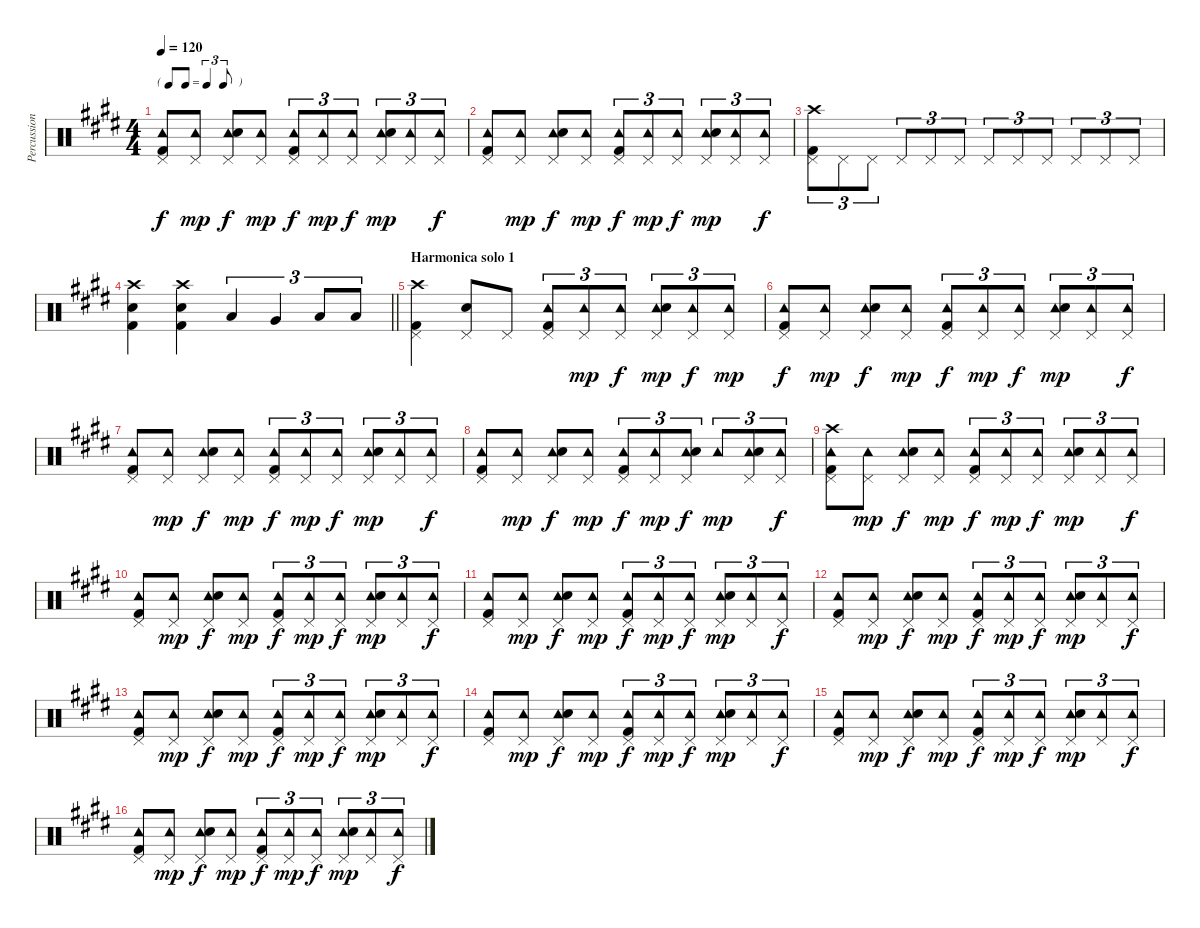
\track ("Percussion" "Percussion") {instrument percussion}
\staff {score}
\articulation defaults
\ts (4 4)
\tf triplet8th
\tempo 120
\clef neutral
\ks e
("Tambourine (hit)" "Pedal Hi-Hat (hit)" "Kick (hit) 2").8{dy f} ("Tambourine (hit)" "Pedal Hi-Hat (hit)").8{dy mp} ("Tambourine (hit)" "Pedal Hi-Hat (hit)" "Electric Snare (hit)").8{dy f} ("Tambourine (hit)" "Pedal Hi-Hat (hit)").8{dy mp} ("Tambourine (hit)" "Pedal Hi-Hat (hit)" "Kick (hit) 2").8{tu (3 2) dy f} ("Tambourine (hit)" "Pedal Hi-Hat (hit)").8{tu (3 2) dy mp} ("Tambourine (hit)" "Pedal Hi-Hat (hit)").8{tu (3 2) dy f} ("Tambourine (hit)" "Pedal Hi-Hat (hit)" "Electric Snare (hit)").8{tu (3 2) dy mp} ("Tambourine (hit)" "Pedal Hi-Hat (hit)").8{tu (3 2)} ("Tambourine (hit)" "Pedal Hi-Hat (hit)").8{tu (3 2) dy f} |
("Tambourine (hit)" "Pedal Hi-Hat (hit)" "Kick (hit) 2").8 ("Tambourine (hit)" "Pedal Hi-Hat (hit)").8{dy mp} ("Tambourine (hit)" "Pedal Hi-Hat (hit)" "Electric Snare (hit)").8{dy f} ("Tambourine (hit)" "Pedal Hi-Hat (hit)").8{dy mp} ("Tambourine (hit)" "Pedal Hi-Hat (hit)" "Kick (hit) 2").8{tu (3 2) dy f} ("Tambourine (hit)" "Pedal Hi-Hat (hit)").8{tu (3 2) dy mp} ("Tambourine (hit)" "Pedal Hi-Hat (hit)").8{tu (3 2) dy f} ("Tambourine (hit)" "Pedal Hi-Hat (hit)" "Electric Snare (hit)").8{tu (3 2) dy mp} ("Tambourine (hit)" "Pedal Hi-Hat (hit)").8{tu (3 2)} ("Tambourine (hit)" "Pedal Hi-Hat (hit)").8{tu (3 2) dy f} |
("Crash high (hit)" "Pedal Hi-Hat (hit)" "Kick (hit) 2").8{tu (3 2) volume 14} "Pedal Hi-Hat (hit)".8{tu (3 2)} "Pedal Hi-Hat (hit)".8{tu (3 2)} "Pedal Hi-Hat (hit)".8{tu (3 2)} "Pedal Hi-Hat (hit)".8{tu (3 2)} "Pedal Hi-Hat (hit)".8{tu (3 2)} "Pedal Hi-Hat (hit)".8{tu (3 2)} "Pedal Hi-Hat (hit)".8{tu (3 2)} "Pedal Hi-Hat (hit)".8{tu (3 2)} "Pedal Hi-Hat (hit)".8{tu (3 2)} "Pedal Hi-Hat (hit)".8{tu (3 2)} "Pedal Hi-Hat (hit)".8{tu (3 2)} |
\barLineRight lightlight
("Crash high (hit)" "Electric Snare (hit)" "Kick (hit) 2").4 ("Crash high (hit)" "Electric Snare (hit)" "Kick (hit) 2").4 "Low Tom (hit)".4{tu (3 2)} "Very Low Tom (hit)".4{tu (3 2)} "Low Floor Tom (hit)".8{tu (3 2)} "Low Floor Tom (hit)".8{tu (3 2)} |
\section ("" "Harmonica solo 1")
("Crash high (hit)" "Pedal Hi-Hat (hit)" "Kick (hit) 2").4{volume 10} ("Pedal Hi-Hat (hit)" "Electric Snare (hit)").8 "Pedal Hi-Hat (hit)".8 ("Tambourine (hit)" "Pedal Hi-Hat (hit)" "Kick (hit) 2").8{tu (3 2)} ("Tambourine (hit)" "Pedal Hi-Hat (hit)").8{tu (3 2) dy mp} ("Tambourine (hit)" "Pedal Hi-Hat (hit)").8{tu (3 2) dy f} ("Tambourine (hit)" "Pedal Hi-Hat (hit)" "Electric Snare (hit)").8{tu (3 2) dy mp} ("Tambourine (hit)" "Pedal Hi-Hat (hit)").8{tu (3 2) dy f} ("Tambourine (hit)" "Pedal Hi-Hat (hit)").8{tu (3 2) dy mp} |
("Tambourine (hit)" "Pedal Hi-Hat (hit)" "Kick (hit) 2").8{dy f} ("Tambourine (hit)" "Pedal Hi-Hat (hit)").8{dy mp} ("Tambourine (hit)" "Pedal Hi-Hat (hit)" "Electric Snare (hit)").8{dy f} ("Tambourine (hit)" "Pedal Hi-Hat (hit)").8{dy mp} ("Tambourine (hit)" "Pedal Hi-Hat (hit)" "Kick (hit) 2").8{tu (3 2) dy f} ("Tambourine (hit)" "Pedal Hi-Hat (hit)").8{tu (3 2) dy mp} ("Tambourine (hit)" "Pedal Hi-Hat (hit)").8{tu (3 2) dy f} ("Tambourine (hit)" "Pedal Hi-Hat (hit)" "Electric Snare (hit)").8{tu (3 2) dy mp} ("Tambourine (hit)" "Pedal Hi-Hat (hit)").8{tu (3 2)} ("Tambourine (hit)" "Pedal Hi-Hat (hit)").8{tu (3 2) dy f} |
("Tambourine (hit)" "Pedal Hi-Hat (hit)" "Kick (hit) 2").8 ("Tambourine (hit)" "Pedal Hi-Hat (hit)").8{dy mp} ("Tambourine (hit)" "Pedal Hi-Hat (hit)" "Electric Snare (hit)").8{dy f} ("Tambourine (hit)" "Pedal Hi-Hat (hit)").8{dy mp} ("Tambourine (hit)" "Pedal Hi-Hat (hit)" "Kick (hit) 2").8{tu (3 2) dy f} ("Tambourine (hit)" "Pedal Hi-Hat (hit)").8{tu (3 2) dy mp} ("Tambourine (hit)" "Pedal Hi-Hat (hit)").8{tu (3 2) dy f} ("Tambourine (hit)" "Pedal Hi-Hat (hit)" "Electric Snare (hit)").8{tu (3 2) dy mp} ("Tambourine (hit)" "Pedal Hi-Hat (hit)").8{tu (3 2)} ("Tambourine (hit)" "Pedal Hi-Hat (hit)").8{tu (3 2) dy f} |
("Tambourine (hit)" "Pedal Hi-Hat (hit)" "Kick (hit) 2").8 ("Tambourine (hit)" "Pedal Hi-Hat (hit)").8{dy mp} ("Tambourine (hit)" "Pedal Hi-Hat (hit)" "Electric Snare (hit)").8{dy f} ("Tambourine (hit)" "Pedal Hi-Hat (hit)").8{dy mp} ("Tambourine (hit)" "Pedal Hi-Hat (hit)" "Kick (hit) 2").8{tu (3 2) dy f} ("Tambourine (hit)" "Pedal Hi-Hat (hit)").8{tu (3 2) dy mp} ("Tambourine (hit)" "Pedal Hi-Hat (hit)" "Electric Snare (hit)").8{tu (3 2) dy f} "Tambourine (hit)".8{tu (3 2) dy mp} ("Tambourine (hit)" "Pedal Hi-Hat (hit)" "Electric Snare (hit)").8{tu (3 2)} ("Tambourine (hit)" "Pedal Hi-Hat (hit)").8{tu (3 2) dy f} |
("Tambourine (hit)" "Crash high (hit)" "Pedal Hi-Hat (hit)" "Kick (hit) 2").8 ("Tambourine (hit)" "Pedal Hi-Hat (hit)").8{dy mp} ("Tambourine (hit)" "Pedal Hi-Hat (hit)" "Electric Snare (hit)").8{dy f} ("Tambourine (hit)" "Pedal Hi-Hat (hit)").8{dy mp} ("Tambourine (hit)" "Pedal Hi-Hat (hit)" "Kick (hit) 2").8{tu (3 2) dy f} ("Tambourine (hit)" "Pedal Hi-Hat (hit)").8{tu (3 2) dy mp} ("Tambourine (hit)" "Pedal Hi-Hat (hit)").8{tu (3 2) dy f} ("Tambourine (hit)" "Pedal Hi-Hat (hit)" "Electric Snare (hit)").8{tu (3 2) dy mp} ("Tambourine (hit)" "Pedal Hi-Hat (hit)").8{tu (3 2)} ("Tambourine (hit)" "Pedal Hi-Hat (hit)").8{tu (3 2) dy f} |
("Tambourine (hit)" "Pedal Hi-Hat (hit)" "Kick (hit) 2").8 ("Tambourine (hit)" "Pedal Hi-Hat (hit)").8{dy mp} ("Tambourine (hit)" "Pedal Hi-Hat (hit)" "Electric Snare (hit)").8{dy f} ("Tambourine (hit)" "Pedal Hi-Hat (hit)").8{dy mp} ("Tambourine (hit)" "Pedal Hi-Hat (hit)" "Kick (hit) 2").8{tu (3 2) dy f} ("Tambourine (hit)" "Pedal Hi-Hat (hit)").8{tu (3 2) dy mp} ("Tambourine (hit)" "Pedal Hi-Hat (hit)").8{tu (3 2) dy f} ("Tambourine (hit)" "Pedal Hi-Hat (hit)" "Electric Snare (hit)").8{tu (3 2) dy mp} ("Tambourine (hit)" "Pedal Hi-Hat (hit)").8{tu (3 2)} ("Tambourine (hit)" "Pedal Hi-Hat (hit)").8{tu (3 2) dy f} |
("Tambourine (hit)" "Pedal Hi-Hat (hit)" "Kick (hit) 2").8 ("Tambourine (hit)" "Pedal Hi-Hat (hit)").8{dy mp} ("Tambourine (hit)" "Pedal Hi-Hat (hit)" "Electric Snare (hit)").8{dy f} ("Tambourine (hit)" "Pedal Hi-Hat (hit)").8{dy mp} ("Tambourine (hit)" "Pedal Hi-Hat (hit)" "Kick (hit) 2").8{tu (3 2) dy f} ("Tambourine (hit)" "Pedal Hi-Hat (hit)").8{tu (3 2) dy mp} ("Tambourine (hit)" "Pedal Hi-Hat (hit)").8{tu (3 2) dy f} ("Tambourine (hit)" "Pedal Hi-Hat (hit)" "Electric Snare (hit)").8{tu (3 2) dy mp} ("Tambourine (hit)" "Pedal Hi-Hat (hit)").8{tu (3 2)} ("Tambourine (hit)" "Pedal Hi-Hat (hit)").8{tu (3 2) dy f} |
("Tambourine (hit)" "Pedal Hi-Hat (hit)" "Kick (hit) 2").8 ("Tambourine (hit)" "Pedal Hi-Hat (hit)").8{dy mp} ("Tambourine (hit)" "Pedal Hi-Hat (hit)" "Electric Snare (hit)").8{dy f} ("Tambourine (hit)" "Pedal Hi-Hat (hit)").8{dy mp} ("Tambourine (hit)" "Pedal Hi-Hat (hit)" "Kick (hit) 2").8{tu (3 2) dy f} ("Tambourine (hit)" "Pedal Hi-Hat (hit)").8{tu (3 2) dy mp} ("Tambourine (hit)" "Pedal Hi-Hat (hit)").8{tu (3 2) dy f} ("Tambourine (hit)" "Pedal Hi-Hat (hit)" "Electric Snare (hit)").8{tu (3 2) dy mp} ("Tambourine (hit)" "Pedal Hi-Hat (hit)").8{tu (3 2)} ("Tambourine (hit)" "Pedal Hi-Hat (hit)").8{tu (3 2) dy f} |
("Tambourine (hit)" "Pedal Hi-Hat (hit)" "Kick (hit) 2").8 ("Tambourine (hit)" "Pedal Hi-Hat (hit)").8{dy mp} ("Tambourine (hit)" "Pedal Hi-Hat (hit)" "Electric Snare (hit)").8{dy f} ("Tambourine (hit)" "Pedal Hi-Hat (hit)").8{dy mp} ("Tambourine (hit)" "Pedal Hi-Hat (hit)" "Kick (hit) 2").8{tu (3 2) dy f} ("Tambourine (hit)" "Pedal Hi-Hat (hit)").8{tu (3 2) dy mp} ("Tambourine (hit)" "Pedal Hi-Hat (hit)").8{tu (3 2) dy f} ("Tambourine (hit)" "Pedal Hi-Hat (hit)" "Electric Snare (hit)").8{tu (3 2) dy mp} ("Tambourine (hit)" "Pedal Hi-Hat (hit)").8{tu (3 2)} ("Tambourine (hit)" "Pedal Hi-Hat (hit)").8{tu (3 2) dy f} |
("Tambourine (hit)" "Pedal Hi-Hat (hit)" "Kick (hit) 2").8 ("Tambourine (hit)" "Pedal Hi-Hat (hit)").8{dy mp} ("Tambourine (hit)" "Pedal Hi-Hat (hit)" "Electric Snare (hit)").8{dy f} ("Tambourine (hit)" "Pedal Hi-Hat (hit)").8{dy mp} ("Tambourine (hit)" "Pedal Hi-Hat (hit)" "Kick (hit) 2").8{tu (3 2) dy f} ("Tambourine (hit)" "Pedal Hi-Hat (hit)").8{tu (3 2) dy mp} ("Tambourine (hit)" "Pedal Hi-Hat (hit)").8{tu (3 2) dy f} ("Tambourine (hit)" "Pedal Hi-Hat (hit)" "Electric Snare (hit)").8{tu (3 2) dy mp} ("Tambourine (hit)" "Pedal Hi-Hat (hit)").8{tu (3 2)} ("Tambourine (hit)" "Pedal Hi-Hat (hit)").8{tu (3 2) dy f} |
("Tambourine (hit)" "Pedal Hi-Hat (hit)" "Kick (hit) 2").8 ("Tambourine (hit)" "Pedal Hi-Hat (hit)").8{dy mp} ("Tambourine (hit)" "Pedal Hi-Hat (hit)" "Electric Snare (hit)").8{dy f} ("Tambourine (hit)" "Pedal Hi-Hat (hit)").8{dy mp} ("Tambourine (hit)" "Pedal Hi-Hat (hit)" "Kick (hit) 2").8{tu (3 2) dy f} ("Tambourine (hit)" "Pedal Hi-Hat (hit)").8{tu (3 2) dy mp} ("Tambourine (hit)" "Pedal Hi-Hat (hit)").8{tu (3 2) dy f} ("Tambourine (hit)" "Pedal Hi-Hat (hit)" "Electric Snare (hit)").8{tu (3 2) dy mp} ("Tambourine (hit)" "Pedal Hi-Hat (hit)").8{tu (3 2)} ("Tambourine (hit)" "Pedal Hi-Hat (hit)").8{tu (3 2) dy f} |
("Tambourine (hit)" "Pedal Hi-Hat (hit)" "Kick (hit) 2").8 ("Tambourine (hit)" "Pedal Hi-Hat (hit)").8{dy mp} ("Tambourine (hit)" "Pedal Hi-Hat (hit)" "Electric Snare (hit)").8{dy f} ("Tambourine (hit)" "Pedal Hi-Hat (hit)").8{dy mp} ("Tambourine (hit)" "Pedal Hi-Hat (hit)" "Kick (hit) 2").8{tu (3 2) dy f} ("Tambourine (hit)" "Pedal Hi-Hat (hit)").8{tu (3 2) dy mp} ("Tambourine (hit)" "Pedal Hi-Hat (hit)").8{tu (3 2) dy f} ("Tambourine (hit)" "Pedal Hi-Hat (hit)" "Electric Snare (hit)").8{tu (3 2) dy mp} ("Tambourine (hit)" "Pedal Hi-Hat (hit)").8{tu (3 2)} ("Tambourine (hit)" "Pedal Hi-Hat (hit)").8{tu (3 2) dy f}
